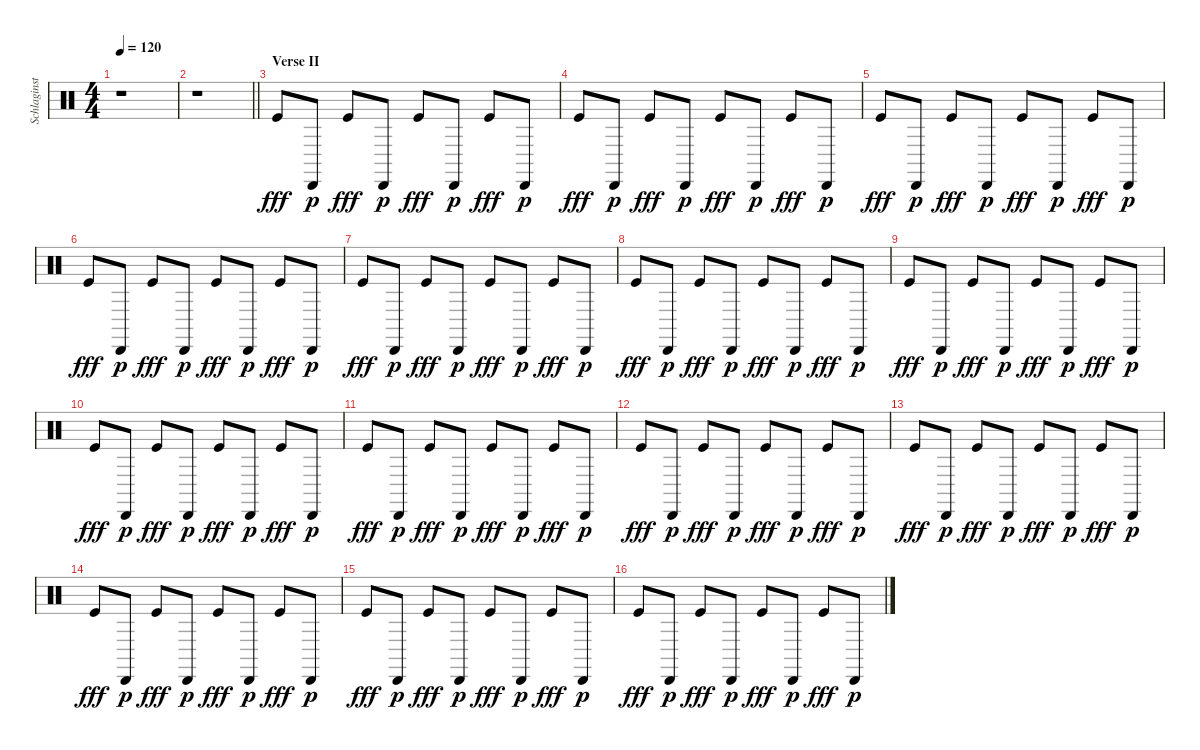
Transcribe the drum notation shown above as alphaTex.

\track ("Schlaginstrumente - Auswahl" "Schlaginst") {instrument percussion}
\staff {score}
\articulation defaults
\ts (4 4)
\tempo 120
\clef neutral
\ks c
r.1{dy fff} |
\barLineRight lightlight
r.1 |
\section ("" "Verse II")
"Kick (hit)".8 "Cabasa (hit)".8{dy p} "Kick (hit)".8{dy fff} "Cabasa (hit)".8{dy p} "Kick (hit)".8{dy fff} "Cabasa (hit)".8{dy p} "Kick (hit)".8{dy fff} "Cabasa (hit)".8{dy p} |
"Kick (hit)".8{dy fff} "Cabasa (hit)".8{dy p} "Kick (hit)".8{dy fff} "Cabasa (hit)".8{dy p} "Kick (hit)".8{dy fff} "Cabasa (hit)".8{dy p} "Kick (hit)".8{dy fff} "Cabasa (hit)".8{dy p} |
"Kick (hit)".8{dy fff} "Cabasa (hit)".8{dy p} "Kick (hit)".8{dy fff} "Cabasa (hit)".8{dy p} "Kick (hit)".8{dy fff} "Cabasa (hit)".8{dy p} "Kick (hit)".8{dy fff} "Cabasa (hit)".8{dy p} |
"Kick (hit)".8{dy fff} "Cabasa (hit)".8{dy p} "Kick (hit)".8{dy fff} "Cabasa (hit)".8{dy p} "Kick (hit)".8{dy fff} "Cabasa (hit)".8{dy p} "Kick (hit)".8{dy fff} "Cabasa (hit)".8{dy p} |
"Kick (hit)".8{dy fff} "Cabasa (hit)".8{dy p} "Kick (hit)".8{dy fff} "Cabasa (hit)".8{dy p} "Kick (hit)".8{dy fff} "Cabasa (hit)".8{dy p} "Kick (hit)".8{dy fff} "Cabasa (hit)".8{dy p} |
"Kick (hit)".8{dy fff} "Cabasa (hit)".8{dy p} "Kick (hit)".8{dy fff} "Cabasa (hit)".8{dy p} "Kick (hit)".8{dy fff} "Cabasa (hit)".8{dy p} "Kick (hit)".8{dy fff} "Cabasa (hit)".8{dy p} |
"Kick (hit)".8{dy fff} "Cabasa (hit)".8{dy p} "Kick (hit)".8{dy fff} "Cabasa (hit)".8{dy p} "Kick (hit)".8{dy fff} "Cabasa (hit)".8{dy p} "Kick (hit)".8{dy fff} "Cabasa (hit)".8{dy p} |
"Kick (hit)".8{dy fff} "Cabasa (hit)".8{dy p} "Kick (hit)".8{dy fff} "Cabasa (hit)".8{dy p} "Kick (hit)".8{dy fff} "Cabasa (hit)".8{dy p} "Kick (hit)".8{dy fff} "Cabasa (hit)".8{dy p} |
"Kick (hit)".8{dy fff} "Cabasa (hit)".8{dy p} "Kick (hit)".8{dy fff} "Cabasa (hit)".8{dy p} "Kick (hit)".8{dy fff} "Cabasa (hit)".8{dy p} "Kick (hit)".8{dy fff} "Cabasa (hit)".8{dy p} |
"Kick (hit)".8{dy fff} "Cabasa (hit)".8{dy p} "Kick (hit)".8{dy fff} "Cabasa (hit)".8{dy p} "Kick (hit)".8{dy fff} "Cabasa (hit)".8{dy p} "Kick (hit)".8{dy fff} "Cabasa (hit)".8{dy p} |
"Kick (hit)".8{dy fff} "Cabasa (hit)".8{dy p} "Kick (hit)".8{dy fff} "Cabasa (hit)".8{dy p} "Kick (hit)".8{dy fff} "Cabasa (hit)".8{dy p} "Kick (hit)".8{dy fff} "Cabasa (hit)".8{dy p} |
"Kick (hit)".8{dy fff} "Cabasa (hit)".8{dy p} "Kick (hit)".8{dy fff} "Cabasa (hit)".8{dy p} "Kick (hit)".8{dy fff} "Cabasa (hit)".8{dy p} "Kick (hit)".8{dy fff} "Cabasa (hit)".8{dy p} |
"Kick (hit)".8{dy fff} "Cabasa (hit)".8{dy p} "Kick (hit)".8{dy fff} "Cabasa (hit)".8{dy p} "Kick (hit)".8{dy fff} "Cabasa (hit)".8{dy p} "Kick (hit)".8{dy fff} "Cabasa (hit)".8{dy p} |
"Kick (hit)".8{dy fff} "Cabasa (hit)".8{dy p} "Kick (hit)".8{dy fff} "Cabasa (hit)".8{dy p} "Kick (hit)".8{dy fff} "Cabasa (hit)".8{dy p} "Kick (hit)".8{dy fff} "Cabasa (hit)".8{dy p}
